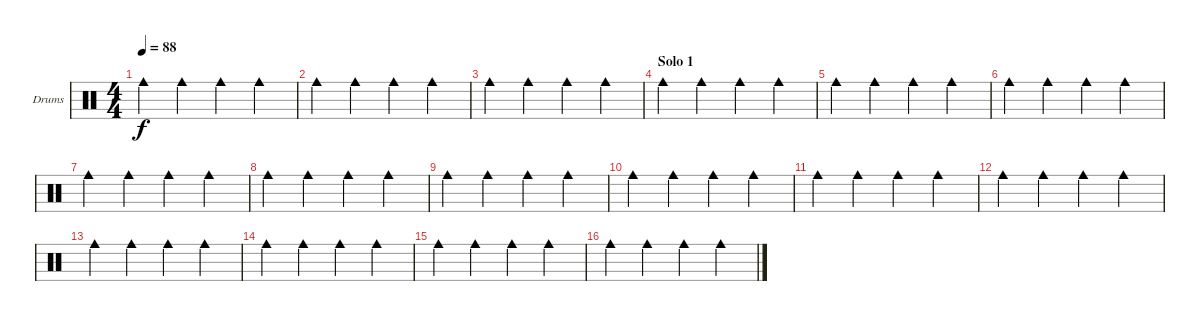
\bracketExtendMode groupsimilarinstruments
\firstSystemTrackNameOrientation horizontal
\otherSystemsTrackNameOrientation horizontal
\track ("Bell" "Drums") {instrument percussion}
\staff {score}
\articulation defaults
\ts (4 4)
\tempo 88
\clef neutral
\ks c "Cowbell medium (hit)".4{dy f} "Cowbell medium (hit)".4 "Cowbell medium (hit)".4 "Cowbell medium (hit)".4
|
"Cowbell medium (hit)".4 "Cowbell medium (hit)".4 "Cowbell medium (hit)".4 "Cowbell medium (hit)".4 |
"Cowbell medium (hit)".4 "Cowbell medium (hit)".4 "Cowbell medium (hit)".4 "Cowbell medium (hit)".4 |
\section ("" "Solo 1")
"Cowbell medium (hit)".4 "Cowbell medium (hit)".4 "Cowbell medium (hit)".4 "Cowbell medium (hit)".4 |
"Cowbell medium (hit)".4 "Cowbell medium (hit)".4 "Cowbell medium (hit)".4 "Cowbell medium (hit)".4 |
"Cowbell medium (hit)".4 "Cowbell medium (hit)".4 "Cowbell medium (hit)".4 "Cowbell medium (hit)".4 |
"Cowbell medium (hit)".4 "Cowbell medium (hit)".4 "Cowbell medium (hit)".4 "Cowbell medium (hit)".4 |
"Cowbell medium (hit)".4 "Cowbell medium (hit)".4 "Cowbell medium (hit)".4 "Cowbell medium (hit)".4 |
"Cowbell medium (hit)".4 "Cowbell medium (hit)".4 "Cowbell medium (hit)".4 "Cowbell medium (hit)".4 |
"Cowbell medium (hit)".4 "Cowbell medium (hit)".4 "Cowbell medium (hit)".4 "Cowbell medium (hit)".4 |
"Cowbell medium (hit)".4 "Cowbell medium (hit)".4 "Cowbell medium (hit)".4 "Cowbell medium (hit)".4 |
"Cowbell medium (hit)".4 "Cowbell medium (hit)".4 "Cowbell medium (hit)".4 "Cowbell medium (hit)".4 |
"Cowbell medium (hit)".4 "Cowbell medium (hit)".4 "Cowbell medium (hit)".4 "Cowbell medium (hit)".4 |
"Cowbell medium (hit)".4 "Cowbell medium (hit)".4 "Cowbell medium (hit)".4 "Cowbell medium (hit)".4 |
"Cowbell medium (hit)".4 "Cowbell medium (hit)".4 "Cowbell medium (hit)".4 "Cowbell medium (hit)".4 |
"Cowbell medium (hit)".4 "Cowbell medium (hit)".4 "Cowbell medium (hit)".4 "Cowbell medium (hit)".4
